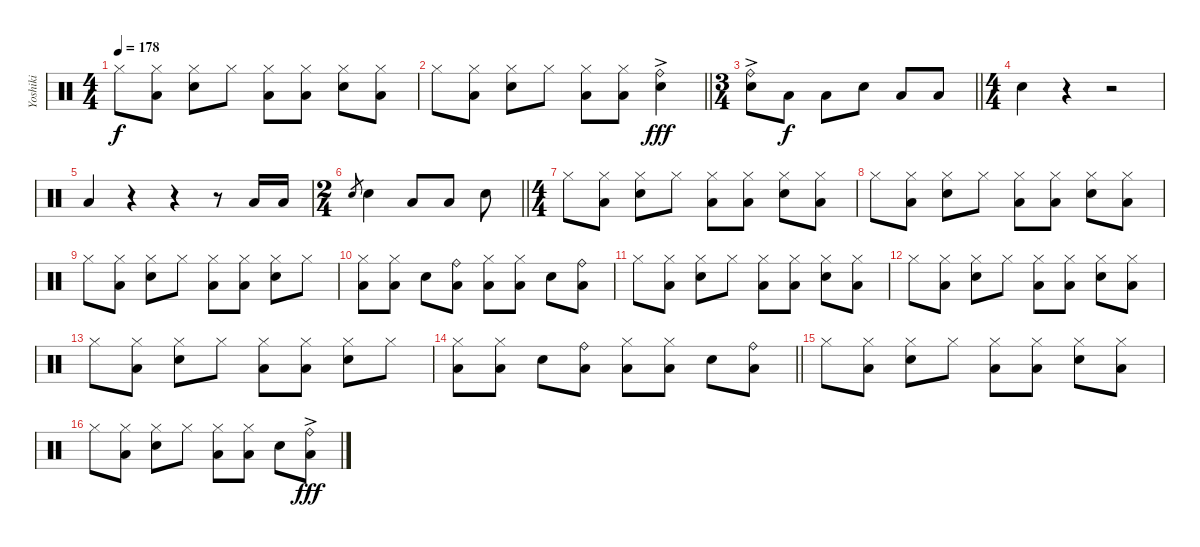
\track ("Yoshiki" "Yoshiki") {instrument percussion}
\staff {score}
\articulation defaults
\ts (4 4)
\tempo 178
\clef neutral
\ks c "Hi-Hat (closed)".8{dy f}
("Hi-Hat (closed)" "Low Floor Tom (hit)").8 ("Hi-Hat (closed)" "Snare (hit) 2").8 "Hi-Hat (closed)".8 ("Hi-Hat (closed)" "Low Floor Tom (hit)").8 ("Hi-Hat (closed)" "Low Floor Tom (hit)").8 ("Hi-Hat (closed)" "Snare (hit) 2").8 ("Hi-Hat (closed)" "Low Floor Tom (hit)").8 |
\barLineRight lightlight "Hi-Hat (closed)".8
("Hi-Hat (closed)" "Low Floor Tom (hit)").8 ("Hi-Hat (closed)" "Snare (hit) 2").8 "Hi-Hat (closed)".8 ("Hi-Hat (closed)" "Low Floor Tom (hit)").8 ("Hi-Hat (closed)" "Low Floor Tom (hit)").8 ("Ride (bell)"{ac} "Snare (hit) 2").4{dy fff} |
\ts (3 4)
\barLineRight lightlight
("Ride (bell)"{ac} "Snare (hit) 2").8 "Low Floor Tom (hit)".8{dy f} "Low Floor Tom (hit)".8 "Snare (hit) 2".8 "Low Floor Tom (hit)".8 "Low Floor Tom (hit)".8 |
\ts (4 4)
"Snare (hit) 2".4 r.4 r.2 |
"Low Floor Tom (hit)".4 r.4 r.4 r.8 "Low Floor Tom (hit)".16 "Low Floor Tom (hit)".16 |
\ts (2 4)
\barLineRight lightlight "Snare (hit) 2".8{gr} "Snare (hit) 2".4 "Low Floor Tom (hit)".8 "Low Floor Tom (hit)".8 "Snare (hit) 2".8
|
\ts (4 4)
"Hi-Hat (closed)".8 ("Hi-Hat (closed)" "Low Floor Tom (hit)").8 ("Hi-Hat (closed)" "Snare (hit) 2").8 "Hi-Hat (closed)".8 ("Hi-Hat (closed)" "Low Floor Tom (hit)").8 ("Hi-Hat (closed)" "Low Floor Tom (hit)").8 ("Hi-Hat (closed)" "Snare (hit) 2").8 ("Hi-Hat (closed)" "Low Floor Tom (hit)").8 |
"Hi-Hat (closed)".8 ("Hi-Hat (closed)" "Low Floor Tom (hit)").8 ("Hi-Hat (closed)" "Snare (hit) 2").8 "Hi-Hat (closed)".8 ("Hi-Hat (closed)" "Low Floor Tom (hit)").8 ("Hi-Hat (closed)" "Low Floor Tom (hit)").8 ("Hi-Hat (closed)" "Snare (hit) 2").8 ("Hi-Hat (closed)" "Low Floor Tom (hit)").8 |
"Hi-Hat (closed)".8 ("Hi-Hat (closed)" "Low Floor Tom (hit)").8 ("Hi-Hat (closed)" "Snare (hit) 2").8 "Hi-Hat (closed)".8 ("Hi-Hat (closed)" "Low Floor Tom (hit)").8 ("Hi-Hat (closed)" "Low Floor Tom (hit)").8 ("Hi-Hat (closed)" "Snare (hit) 2").8 "Hi-Hat (closed)".8 |
("Hi-Hat (closed)" "Low Floor Tom (hit)").8 ("Hi-Hat (closed)" "Low Floor Tom (hit)").8 "Snare (hit) 2".8 ("Ride (bell)" "Low Floor Tom (hit)").8 ("Hi-Hat (closed)" "Low Floor Tom (hit)").8 ("Hi-Hat (closed)" "Low Floor Tom (hit)").8 "Snare (hit) 2".8 ("Ride (bell)" "Low Floor Tom (hit)").8 |
"Hi-Hat (closed)".8 ("Hi-Hat (closed)" "Low Floor Tom (hit)").8 ("Hi-Hat (closed)" "Snare (hit) 2").8 "Hi-Hat (closed)".8 ("Hi-Hat (closed)" "Low Floor Tom (hit)").8 ("Hi-Hat (closed)" "Low Floor Tom (hit)").8 ("Hi-Hat (closed)" "Snare (hit) 2").8 ("Hi-Hat (closed)" "Low Floor Tom (hit)").8 |
"Hi-Hat (closed)".8 ("Hi-Hat (closed)" "Low Floor Tom (hit)").8 ("Hi-Hat (closed)" "Snare (hit) 2").8 "Hi-Hat (closed)".8 ("Hi-Hat (closed)" "Low Floor Tom (hit)").8 ("Hi-Hat (closed)" "Low Floor Tom (hit)").8 ("Hi-Hat (closed)" "Snare (hit) 2").8 ("Hi-Hat (closed)" "Low Floor Tom (hit)").8 |
"Hi-Hat (closed)".8 ("Hi-Hat (closed)" "Low Floor Tom (hit)").8 ("Hi-Hat (closed)" "Snare (hit) 2").8 "Hi-Hat (closed)".8 ("Hi-Hat (closed)" "Low Floor Tom (hit)").8 ("Hi-Hat (closed)" "Low Floor Tom (hit)").8 ("Hi-Hat (closed)" "Snare (hit) 2").8 "Hi-Hat (closed)".8 |
\barLineRight lightlight
("Hi-Hat (closed)" "Low Floor Tom (hit)").8 ("Hi-Hat (closed)" "Low Floor Tom (hit)").8 "Snare (hit) 2".8 ("Ride (bell)" "Low Floor Tom (hit)").8 ("Hi-Hat (closed)" "Low Floor Tom (hit)").8 ("Hi-Hat (closed)" "Low Floor Tom (hit)").8 "Snare (hit) 2".8 ("Ride (bell)" "Low Floor Tom (hit)").8 |
"Hi-Hat (closed)".8 ("Hi-Hat (closed)" "Low Floor Tom (hit)").8 ("Hi-Hat (closed)" "Snare (hit) 2").8 "Hi-Hat (closed)".8 ("Hi-Hat (closed)" "Low Floor Tom (hit)").8 ("Hi-Hat (closed)" "Low Floor Tom (hit)").8 ("Hi-Hat (closed)" "Snare (hit) 2").8 ("Hi-Hat (closed)" "Low Floor Tom (hit)").8 |
"Hi-Hat (closed)".8 ("Hi-Hat (closed)" "Low Floor Tom (hit)").8 ("Hi-Hat (closed)" "Snare (hit) 2").8 "Hi-Hat (closed)".8 ("Hi-Hat (closed)" "Low Floor Tom (hit)").8 ("Hi-Hat (closed)" "Low Floor Tom (hit)").8 "Snare (hit) 2".8 ("Ride (bell)"{ac} "Low Floor Tom (hit)").8{dy fff}
